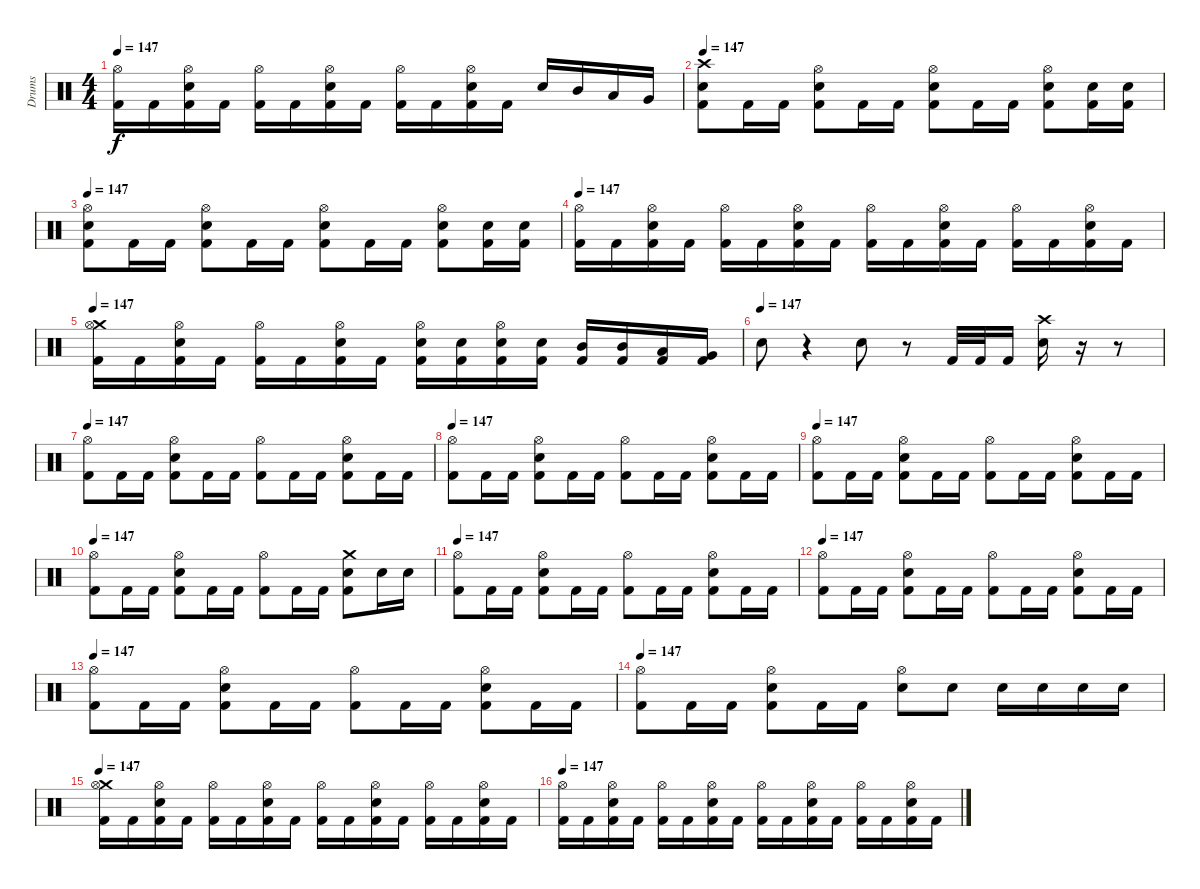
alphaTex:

\track ("Drums" "Drums") {instrument percussion}
\staff {score}
\articulation defaults
\ts (4 4)
\tempo 147
\clef neutral
\ks c
("Hi-Hat (open)" "Kick (hit) 2").16{dy f} "Kick (hit) 2".16 ("Hi-Hat (open)" "Electric Snare (hit)" "Kick (hit) 2").16 "Kick (hit) 2".16 ("Hi-Hat (open)" "Kick (hit) 2").16 "Kick (hit) 2".16 ("Hi-Hat (open)" "Electric Snare (hit)" "Kick (hit) 2").16 "Kick (hit) 2".16 ("Hi-Hat (open)" "Kick (hit) 2").16 "Kick (hit) 2".16 ("Hi-Hat (open)" "Electric Snare (hit)" "Kick (hit) 2").16 "Kick (hit) 2".16 "Snare (hit) 2".16 "Mid Tom (hit)".16 "Low Tom (hit)".16 "Very Low Tom (hit)".16 |
\tempo 147
("Crash high (hit)" "Electric Snare (hit)" "Kick (hit) 2").8 "Kick (hit) 2".16 "Kick (hit) 2".16 ("Hi-Hat (open)" "Electric Snare (hit)" "Kick (hit) 2").8 "Kick (hit) 2".16 "Kick (hit) 2".16 ("Hi-Hat (open)" "Electric Snare (hit)" "Kick (hit) 2").8 "Kick (hit) 2".16 "Kick (hit) 2".16 ("Hi-Hat (open)" "Electric Snare (hit)" "Kick (hit) 2").8 ("Electric Snare (hit)" "Kick (hit) 2").16 ("Electric Snare (hit)" "Kick (hit) 2").16 |
\tempo 147
("Hi-Hat (open)" "Electric Snare (hit)" "Kick (hit) 2").8 "Kick (hit) 2".16 "Kick (hit) 2".16 ("Hi-Hat (open)" "Electric Snare (hit)" "Kick (hit) 2").8 "Kick (hit) 2".16 "Kick (hit) 2".16 ("Hi-Hat (open)" "Electric Snare (hit)" "Kick (hit) 2").8 "Kick (hit) 2".16 "Kick (hit) 2".16 ("Hi-Hat (open)" "Electric Snare (hit)" "Kick (hit) 2").8 ("Electric Snare (hit)" "Kick (hit) 2").16 ("Electric Snare (hit)" "Kick (hit) 2").16 |
\tempo 147
("Hi-Hat (open)" "Kick (hit) 2").16 "Kick (hit) 2".16 ("Hi-Hat (open)" "Electric Snare (hit)" "Kick (hit) 2").16 "Kick (hit) 2".16 ("Hi-Hat (open)" "Kick (hit) 2").16 "Kick (hit) 2".16 ("Hi-Hat (open)" "Electric Snare (hit)" "Kick (hit) 2").16 "Kick (hit) 2".16 ("Hi-Hat (open)" "Kick (hit) 2").16 "Kick (hit) 2".16 ("Hi-Hat (open)" "Electric Snare (hit)" "Kick (hit) 2").16 "Kick (hit) 2".16 ("Hi-Hat (open)" "Kick (hit) 2").16 "Kick (hit) 2".16 ("Hi-Hat (open)" "Electric Snare (hit)" "Kick (hit) 2").16 "Kick (hit) 2".16 |
\tempo 147
("Crash medium (hit)" "Hi-Hat (open)" "Kick (hit) 2").16 "Kick (hit) 2".16 ("Hi-Hat (open)" "Electric Snare (hit)" "Kick (hit) 2").16 "Kick (hit) 2".16 ("Hi-Hat (open)" "Kick (hit) 2").16 "Kick (hit) 2".16 ("Hi-Hat (open)" "Electric Snare (hit)" "Kick (hit) 2").16 "Kick (hit) 2".16 ("Hi-Hat (open)" "Electric Snare (hit)" "Kick (hit) 2").16 ("Electric Snare (hit)" "Kick (hit) 2").16 ("Hi-Hat (open)" "Electric Snare (hit)" "Kick (hit) 2").16 ("Electric Snare (hit)" "Kick (hit) 2").16 ("Mid Tom (hit)" "Kick (hit) 2").16 ("Mid Tom (hit)" "Kick (hit) 2").16 ("Low Tom (hit)" "Kick (hit) 2").16 ("Very Low Tom (hit)" "Kick (hit) 2").16 |
\tempo (147)
"Electric Snare (hit)".8 r.4 "Electric Snare (hit)".8 r.8 "Kick (hit) 2".32 "Kick (hit) 2".32 "Kick (hit) 2".16 ("Crash high (hit)" "Electric Snare (hit)").16 r.16 r.8 |
\tempo 147
("Hi-Hat (open)" "Kick (hit) 2").8 "Kick (hit) 2".16 "Kick (hit) 2".16 ("Hi-Hat (open)" "Electric Snare (hit)" "Kick (hit) 2").8 "Kick (hit) 2".16 "Kick (hit) 2".16 ("Hi-Hat (open)" "Kick (hit) 2").8 "Kick (hit) 2".16 "Kick (hit) 2".16 ("Hi-Hat (open)" "Electric Snare (hit)" "Kick (hit) 2").8 "Kick (hit) 2".16 "Kick (hit) 2".16 |
\tempo 147
("Hi-Hat (open)" "Kick (hit) 2").8 "Kick (hit) 2".16 "Kick (hit) 2".16 ("Hi-Hat (open)" "Electric Snare (hit)" "Kick (hit) 2").8 "Kick (hit) 2".16 "Kick (hit) 2".16 ("Hi-Hat (open)" "Kick (hit) 2").8 "Kick (hit) 2".16 "Kick (hit) 2".16 ("Hi-Hat (open)" "Electric Snare (hit)" "Kick (hit) 2").8 "Kick (hit) 2".16 "Kick (hit) 2".16 |
\tempo 147
("Hi-Hat (open)" "Kick (hit) 2").8 "Kick (hit) 2".16 "Kick (hit) 2".16 ("Hi-Hat (open)" "Electric Snare (hit)" "Kick (hit) 2").8 "Kick (hit) 2".16 "Kick (hit) 2".16 ("Hi-Hat (open)" "Kick (hit) 2").8 "Kick (hit) 2".16 "Kick (hit) 2".16 ("Hi-Hat (open)" "Electric Snare (hit)" "Kick (hit) 2").8 "Kick (hit) 2".16 "Kick (hit) 2".16 |
\tempo 147
("Hi-Hat (open)" "Kick (hit) 2").8 "Kick (hit) 2".16 "Kick (hit) 2".16 ("Hi-Hat (open)" "Electric Snare (hit)" "Kick (hit) 2").8 "Kick (hit) 2".16 "Kick (hit) 2".16 ("Hi-Hat (open)" "Kick (hit) 2").8 "Kick (hit) 2".16 "Kick (hit) 2".16 ("Crash medium (hit)" "Electric Snare (hit)" "Kick (hit) 2").8 "Electric Snare (hit)".16 "Electric Snare (hit)".16 |
\tempo 147
("Hi-Hat (open)" "Kick (hit) 2").8 "Kick (hit) 2".16 "Kick (hit) 2".16 ("Hi-Hat (open)" "Electric Snare (hit)" "Kick (hit) 2").8 "Kick (hit) 2".16 "Kick (hit) 2".16 ("Hi-Hat (open)" "Kick (hit) 2").8 "Kick (hit) 2".16 "Kick (hit) 2".16 ("Hi-Hat (open)" "Electric Snare (hit)" "Kick (hit) 2").8 "Kick (hit) 2".16 "Kick (hit) 2".16 |
\tempo 147
("Hi-Hat (open)" "Kick (hit) 2").8 "Kick (hit) 2".16 "Kick (hit) 2".16 ("Hi-Hat (open)" "Electric Snare (hit)" "Kick (hit) 2").8 "Kick (hit) 2".16 "Kick (hit) 2".16 ("Hi-Hat (open)" "Kick (hit) 2").8 "Kick (hit) 2".16 "Kick (hit) 2".16 ("Hi-Hat (open)" "Electric Snare (hit)" "Kick (hit) 2").8 "Kick (hit) 2".16 "Kick (hit) 2".16 |
\tempo 147
("Hi-Hat (open)" "Kick (hit) 2").8 "Kick (hit) 2".16 "Kick (hit) 2".16 ("Hi-Hat (open)" "Electric Snare (hit)" "Kick (hit) 2").8 "Kick (hit) 2".16 "Kick (hit) 2".16 ("Hi-Hat (open)" "Kick (hit) 2").8 "Kick (hit) 2".16 "Kick (hit) 2".16 ("Hi-Hat (open)" "Electric Snare (hit)" "Kick (hit) 2").8 "Kick (hit) 2".16 "Kick (hit) 2".16 |
\tempo 147
("Hi-Hat (open)" "Kick (hit) 2").8 "Kick (hit) 2".16 "Kick (hit) 2".16 ("Hi-Hat (open)" "Electric Snare (hit)" "Kick (hit) 2").8 "Kick (hit) 2".16 "Kick (hit) 2".16 ("Hi-Hat (open)" "Snare (hit) 2").8 "Snare (hit) 2".8 "Snare (hit) 2".16 "Snare (hit) 2".16 "Snare (hit) 2".16 "Snare (hit) 2".16 |
\tempo 147
("Crash medium (hit)" "Hi-Hat (open)" "Kick (hit) 2").16 "Kick (hit) 2".16 ("Hi-Hat (open)" "Electric Snare (hit)" "Kick (hit) 2").16 "Kick (hit) 2".16 ("Hi-Hat (open)" "Kick (hit) 2").16 "Kick (hit) 2".16 ("Hi-Hat (open)" "Electric Snare (hit)" "Kick (hit) 2").16 "Kick (hit) 2".16 ("Hi-Hat (open)" "Kick (hit) 2").16 "Kick (hit) 2".16 ("Hi-Hat (open)" "Electric Snare (hit)" "Kick (hit) 2").16 "Kick (hit) 2".16 ("Hi-Hat (open)" "Kick (hit) 2").16 "Kick (hit) 2".16 ("Hi-Hat (open)" "Electric Snare (hit)" "Kick (hit) 2").16 "Kick (hit) 2".16 |
\tempo 147
("Hi-Hat (open)" "Kick (hit) 2").16 "Kick (hit) 2".16 ("Hi-Hat (open)" "Electric Snare (hit)" "Kick (hit) 2").16 "Kick (hit) 2".16 ("Hi-Hat (open)" "Kick (hit) 2").16 "Kick (hit) 2".16 ("Hi-Hat (open)" "Electric Snare (hit)" "Kick (hit) 2").16 "Kick (hit) 2".16 ("Hi-Hat (open)" "Kick (hit) 2").16 "Kick (hit) 2".16 ("Hi-Hat (open)" "Electric Snare (hit)" "Kick (hit) 2").16 "Kick (hit) 2".16 ("Hi-Hat (open)" "Kick (hit) 2").16 "Kick (hit) 2".16 ("Hi-Hat (open)" "Electric Snare (hit)" "Kick (hit) 2").16 "Kick (hit) 2".16
